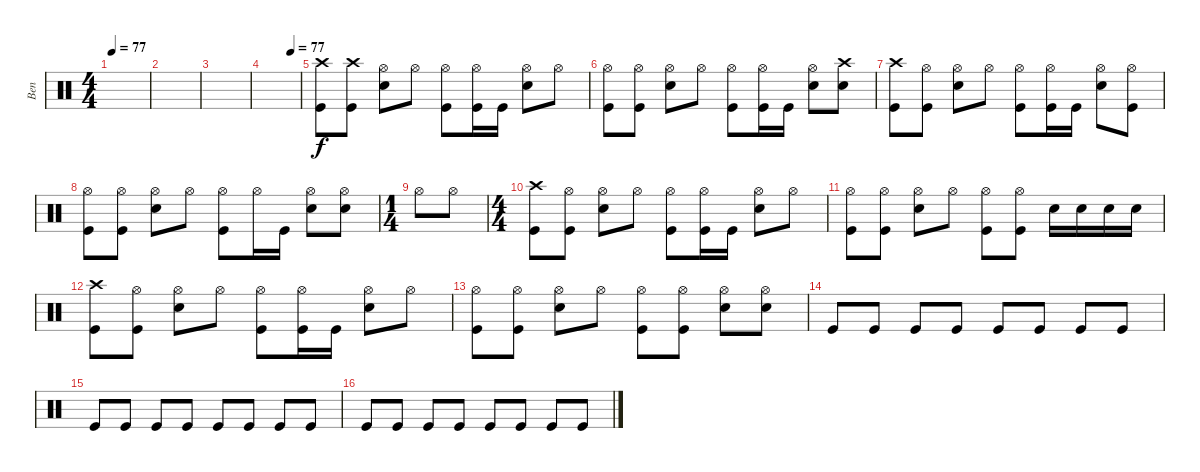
\track ("Ben" "Ben") {instrument percussion}
\staff {score}
\articulation defaults
\ts (4 4)
\tempo 77
\clef neutral
\ks c
|
|
|
\tempo (77 0.75)
|
("Crash high (hit)" "Kick (hit)").8 ("Crash high (hit)" "Kick (hit)").8 ("Hi-Hat (open)" "Snare (hit) 2").8 "Hi-Hat (open)".8 ("Hi-Hat (open)" "Kick (hit)").8 ("Hi-Hat (open)" "Kick (hit)").16 "Kick (hit)".16 ("Hi-Hat (open)" "Snare (hit) 2").8 "Hi-Hat (open)".8 |
("Hi-Hat (open)" "Kick (hit)").8 ("Hi-Hat (open)" "Kick (hit)").8 ("Hi-Hat (open)" "Snare (hit) 2").8 "Hi-Hat (open)".8 ("Hi-Hat (open)" "Kick (hit)").8 ("Hi-Hat (open)" "Kick (hit)").16 "Kick (hit)".16 ("Hi-Hat (open)" "Snare (hit) 2").8 ("Crash high (hit)" "Snare (hit) 2").8 |
("Crash high (hit)" "Kick (hit)").8 ("Hi-Hat (open)" "Kick (hit)").8 ("Hi-Hat (open)" "Snare (hit) 2").8 "Hi-Hat (open)".8 ("Hi-Hat (open)" "Kick (hit)").8 ("Hi-Hat (open)" "Kick (hit)").16 "Kick (hit)".16 ("Hi-Hat (open)" "Snare (hit) 2").8 ("Hi-Hat (open)" "Kick (hit)").8 |
("Hi-Hat (open)" "Kick (hit)").8 ("Hi-Hat (open)" "Kick (hit)").8 ("Hi-Hat (open)" "Snare (hit) 2").8 "Hi-Hat (open)".8 ("Hi-Hat (open)" "Kick (hit)").8 "Hi-Hat (open)".16 "Kick (hit)".16 ("Hi-Hat (open)" "Snare (hit) 2").8 ("Hi-Hat (open)" "Snare (hit) 2").8 |
\ts (1 4)
"Hi-Hat (open)".8 "Hi-Hat (open)".8 |
\ts (4 4)
("Crash high (hit)" "Kick (hit)").8 ("Hi-Hat (open)" "Kick (hit)").8 ("Hi-Hat (open)" "Snare (hit) 2").8 "Hi-Hat (open)".8 ("Hi-Hat (open)" "Kick (hit)").8 ("Hi-Hat (open)" "Kick (hit)").16 "Kick (hit)".16 ("Hi-Hat (open)" "Snare (hit) 2").8 "Hi-Hat (open)".8 |
("Hi-Hat (open)" "Kick (hit)").8 ("Hi-Hat (open)" "Kick (hit)").8 ("Hi-Hat (open)" "Snare (hit) 2").8 "Hi-Hat (open)".8 ("Hi-Hat (open)" "Kick (hit)").8 ("Hi-Hat (open)" "Kick (hit)").8 "Snare (hit) 2".16 "Snare (hit) 2".16 "Snare (hit) 2".16 "Snare (hit) 2".16 |
("Crash high (hit)" "Kick (hit)").8 ("Hi-Hat (open)" "Kick (hit)").8 ("Hi-Hat (open)" "Snare (hit) 2").8 "Hi-Hat (open)".8 ("Hi-Hat (open)" "Kick (hit)").8 ("Hi-Hat (open)" "Kick (hit)").16 "Kick (hit)".16 ("Hi-Hat (open)" "Snare (hit) 2").8 "Hi-Hat (open)".8 |
("Hi-Hat (open)" "Kick (hit)").8 ("Hi-Hat (open)" "Kick (hit)").8 ("Hi-Hat (open)" "Snare (hit) 2").8 "Hi-Hat (open)".8 ("Hi-Hat (open)" "Kick (hit)").8 ("Hi-Hat (open)" "Kick (hit)").8 ("Hi-Hat (open)" "Snare (hit) 2").8 ("Hi-Hat (open)" "Snare (hit) 2").8 |
"Kick (hit)".8 "Kick (hit)".8 "Kick (hit)".8 "Kick (hit)".8 "Kick (hit)".8 "Kick (hit)".8 "Kick (hit)".8 "Kick (hit)".8 |
"Kick (hit)".8 "Kick (hit)".8 "Kick (hit)".8 "Kick (hit)".8 "Kick (hit)".8 "Kick (hit)".8 "Kick (hit)".8 "Kick (hit)".8 |
"Kick (hit)".8 "Kick (hit)".8 "Kick (hit)".8 "Kick (hit)".8 "Kick (hit)".8 "Kick (hit)".8 "Kick (hit)".8 "Kick (hit)".8
